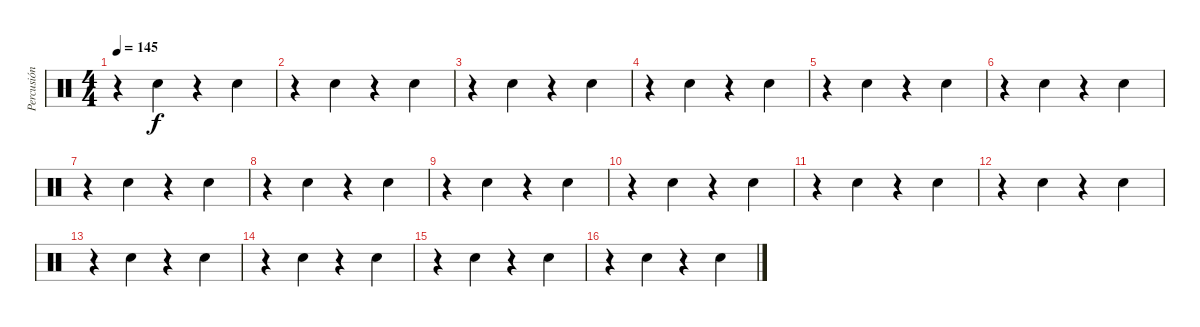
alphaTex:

\track ("Percusión" "Percusión") {instrument percussion}
\staff {score}
\articulation defaults
\ts (4 4)
\tempo 145
\clef neutral
\ks c
r.4{dy f} "Snare (hit) 2".4 r.4 "Snare (hit) 2".4 |
r.4 "Snare (hit) 2".4 r.4 "Snare (hit) 2".4 |
r.4 "Snare (hit) 2".4 r.4 "Snare (hit) 2".4 |
r.4 "Snare (hit) 2".4 r.4 "Snare (hit) 2".4 |
r.4 "Snare (hit) 2".4 r.4 "Snare (hit) 2".4 |
r.4 "Snare (hit) 2".4 r.4 "Snare (hit) 2".4 |
r.4 "Snare (hit) 2".4 r.4 "Snare (hit) 2".4 |
r.4 "Snare (hit) 2".4 r.4 "Snare (hit) 2".4 |
r.4 "Snare (hit) 2".4 r.4 "Snare (hit) 2".4 |
r.4 "Snare (hit) 2".4 r.4 "Snare (hit) 2".4 |
r.4 "Snare (hit) 2".4 r.4 "Snare (hit) 2".4 |
r.4 "Snare (hit) 2".4 r.4 "Snare (hit) 2".4 |
r.4 "Snare (hit) 2".4 r.4 "Snare (hit) 2".4 |
r.4 "Snare (hit) 2".4 r.4 "Snare (hit) 2".4 |
r.4 "Snare (hit) 2".4 r.4 "Snare (hit) 2".4 |
r.4 "Snare (hit) 2".4 r.4 "Snare (hit) 2".4
